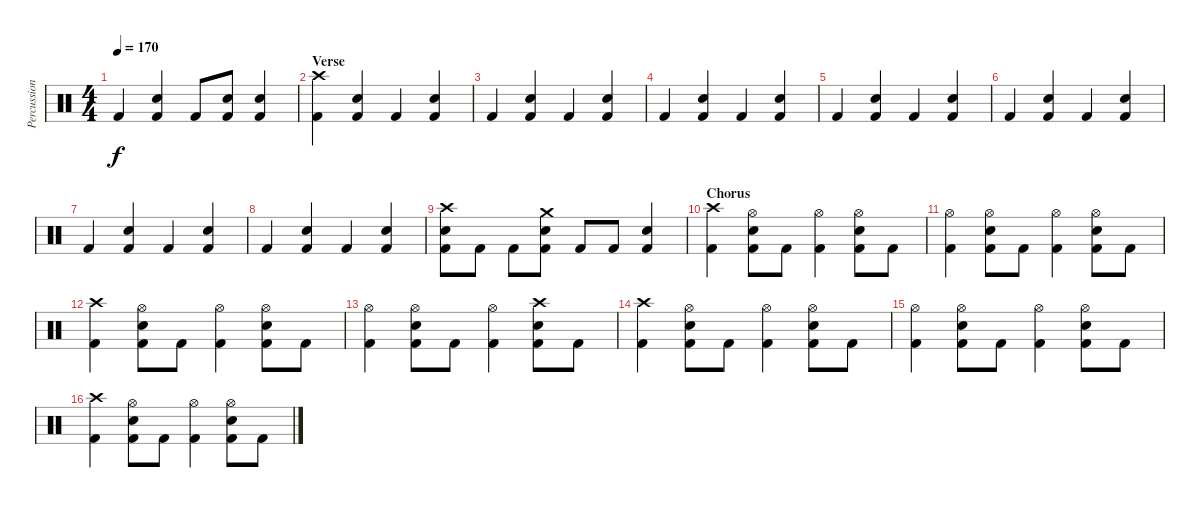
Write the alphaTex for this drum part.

\track ("Percussion" "Percussion") {instrument percussion}
\staff {score}
\articulation defaults
\ts (4 4)
\tempo 170
\clef neutral
\ks c "Kick (hit) 2".4{dy f}
("Snare (hit) 2" "Kick (hit) 2").4 "Kick (hit) 2".8 ("Snare (hit) 2" "Kick (hit) 2").8 ("Snare (hit) 2" "Kick (hit) 2").4 |
\section ("" "Verse")
("Crash high (hit)" "Kick (hit) 2").4 ("Snare (hit) 2" "Kick (hit) 2").4 "Kick (hit) 2".4 ("Snare (hit) 2" "Kick (hit) 2").4 |
"Kick (hit) 2".4 ("Snare (hit) 2" "Kick (hit) 2").4 "Kick (hit) 2".4 ("Snare (hit) 2" "Kick (hit) 2").4 |
"Kick (hit) 2".4 ("Snare (hit) 2" "Kick (hit) 2").4 "Kick (hit) 2".4 ("Snare (hit) 2" "Kick (hit) 2").4 |
"Kick (hit) 2".4 ("Snare (hit) 2" "Kick (hit) 2").4 "Kick (hit) 2".4 ("Snare (hit) 2" "Kick (hit) 2").4 |
"Kick (hit) 2".4 ("Snare (hit) 2" "Kick (hit) 2").4 "Kick (hit) 2".4 ("Snare (hit) 2" "Kick (hit) 2").4 |
"Kick (hit) 2".4 ("Snare (hit) 2" "Kick (hit) 2").4 "Kick (hit) 2".4 ("Snare (hit) 2" "Kick (hit) 2").4 |
"Kick (hit) 2".4 ("Snare (hit) 2" "Kick (hit) 2").4 "Kick (hit) 2".4 ("Snare (hit) 2" "Kick (hit) 2").4 |
("Crash high (hit)" "Snare (hit) 2" "Kick (hit) 2").8 "Kick (hit) 2".8 "Kick (hit) 2".8 ("Crash medium (hit)" "Snare (hit) 2" "Kick (hit) 2").8 "Kick (hit) 2".8 "Kick (hit) 2".8 ("Snare (hit) 2" "Kick (hit) 2").4 |
\section ("" "Chorus")
("Crash high (hit)" "Kick (hit) 2").4 ("Hi-Hat (open)" "Snare (hit) 2" "Kick (hit) 2").8 "Kick (hit) 2".8 ("Hi-Hat (open)" "Kick (hit) 2").4 ("Hi-Hat (open)" "Snare (hit) 2" "Kick (hit) 2").8 "Kick (hit) 2".8 |
("Hi-Hat (open)" "Kick (hit) 2").4 ("Hi-Hat (open)" "Snare (hit) 2" "Kick (hit) 2").8 "Kick (hit) 2".8 ("Hi-Hat (open)" "Kick (hit) 2").4 ("Hi-Hat (open)" "Snare (hit) 2" "Kick (hit) 2").8 "Kick (hit) 2".8 |
("Crash high (hit)" "Kick (hit) 2").4 ("Hi-Hat (open)" "Snare (hit) 2" "Kick (hit) 2").8 "Kick (hit) 2".8 ("Hi-Hat (open)" "Kick (hit) 2").4 ("Hi-Hat (open)" "Snare (hit) 2" "Kick (hit) 2").8 "Kick (hit) 2".8 |
("Hi-Hat (open)" "Kick (hit) 2").4 ("Hi-Hat (open)" "Snare (hit) 2" "Kick (hit) 2").8 "Kick (hit) 2".8 ("Hi-Hat (open)" "Kick (hit) 2").4 ("Crash high (hit)" "Snare (hit) 2" "Kick (hit) 2").8 "Kick (hit) 2".8 |
("Crash high (hit)" "Kick (hit) 2").4 ("Hi-Hat (open)" "Snare (hit) 2" "Kick (hit) 2").8 "Kick (hit) 2".8 ("Hi-Hat (open)" "Kick (hit) 2").4 ("Hi-Hat (open)" "Snare (hit) 2" "Kick (hit) 2").8 "Kick (hit) 2".8 |
("Hi-Hat (open)" "Kick (hit) 2").4 ("Hi-Hat (open)" "Snare (hit) 2" "Kick (hit) 2").8 "Kick (hit) 2".8 ("Hi-Hat (open)" "Kick (hit) 2").4 ("Hi-Hat (open)" "Snare (hit) 2" "Kick (hit) 2").8 "Kick (hit) 2".8 |
("Crash high (hit)" "Kick (hit) 2").4 ("Hi-Hat (open)" "Snare (hit) 2" "Kick (hit) 2").8 "Kick (hit) 2".8 ("Hi-Hat (open)" "Kick (hit) 2").4 ("Hi-Hat (open)" "Snare (hit) 2" "Kick (hit) 2").8 "Kick (hit) 2".8
